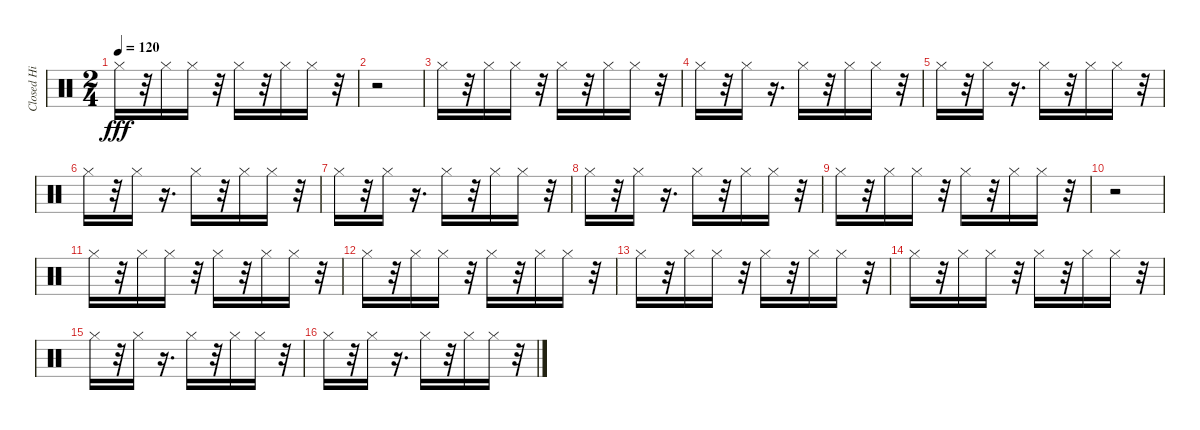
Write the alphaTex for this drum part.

\track ("Closed Hi Hat (1) (1) (1) (1)" "Closed Hi ") {instrument percussion}
\staff {score}
\articulation defaults
\ts (2 4)
\tempo 120
\clef neutral
\ks c "Hi-Hat (closed)".16{dy fff}
r.32 "Hi-Hat (closed)".16 "Hi-Hat (closed)".16 r.32 "Hi-Hat (closed)".16 r.32 "Hi-Hat (closed)".16 "Hi-Hat (closed)".16 r.32 |
r.2 |
"Hi-Hat (closed)".16 r.32 "Hi-Hat (closed)".16 "Hi-Hat (closed)".16 r.32 "Hi-Hat (closed)".16 r.32 "Hi-Hat (closed)".16 "Hi-Hat (closed)".16 r.32 |
"Hi-Hat (closed)".16 r.32 "Hi-Hat (closed)".16 r.16{d} "Hi-Hat (closed)".16 r.32 "Hi-Hat (closed)".16 "Hi-Hat (closed)".16 r.32 |
"Hi-Hat (closed)".16 r.32 "Hi-Hat (closed)".16 r.16{d} "Hi-Hat (closed)".16 r.32 "Hi-Hat (closed)".16 "Hi-Hat (closed)".16 r.32 |
"Hi-Hat (closed)".16 r.32 "Hi-Hat (closed)".16 r.16{d} "Hi-Hat (closed)".16 r.32 "Hi-Hat (closed)".16 "Hi-Hat (closed)".16 r.32 |
"Hi-Hat (closed)".16 r.32 "Hi-Hat (closed)".16 r.16{d} "Hi-Hat (closed)".16 r.32 "Hi-Hat (closed)".16 "Hi-Hat (closed)".16 r.32 |
"Hi-Hat (closed)".16 r.32 "Hi-Hat (closed)".16 r.16{d} "Hi-Hat (closed)".16 r.32 "Hi-Hat (closed)".16 "Hi-Hat (closed)".16 r.32 |
"Hi-Hat (closed)".16 r.32 "Hi-Hat (closed)".16 "Hi-Hat (closed)".16 r.32 "Hi-Hat (closed)".16 r.32 "Hi-Hat (closed)".16 "Hi-Hat (closed)".16 r.32 |
r.2 |
"Hi-Hat (closed)".16 r.32 "Hi-Hat (closed)".16 "Hi-Hat (closed)".16 r.32 "Hi-Hat (closed)".16 r.32 "Hi-Hat (closed)".16 "Hi-Hat (closed)".16 r.32 |
"Hi-Hat (closed)".16 r.32 "Hi-Hat (closed)".16 "Hi-Hat (closed)".16 r.32 "Hi-Hat (closed)".16 r.32 "Hi-Hat (closed)".16 "Hi-Hat (closed)".16 r.32 |
"Hi-Hat (closed)".16 r.32 "Hi-Hat (closed)".16 "Hi-Hat (closed)".16 r.32 "Hi-Hat (closed)".16 r.32 "Hi-Hat (closed)".16 "Hi-Hat (closed)".16 r.32 |
"Hi-Hat (closed)".16 r.32 "Hi-Hat (closed)".16 "Hi-Hat (closed)".16 r.32 "Hi-Hat (closed)".16 r.32 "Hi-Hat (closed)".16 "Hi-Hat (closed)".16 r.32 |
"Hi-Hat (closed)".16 r.32 "Hi-Hat (closed)".16 r.16{d} "Hi-Hat (closed)".16 r.32 "Hi-Hat (closed)".16 "Hi-Hat (closed)".16 r.32 |
"Hi-Hat (closed)".16 r.32 "Hi-Hat (closed)".16 r.16{d} "Hi-Hat (closed)".16 r.32 "Hi-Hat (closed)".16 "Hi-Hat (closed)".16 r.32
